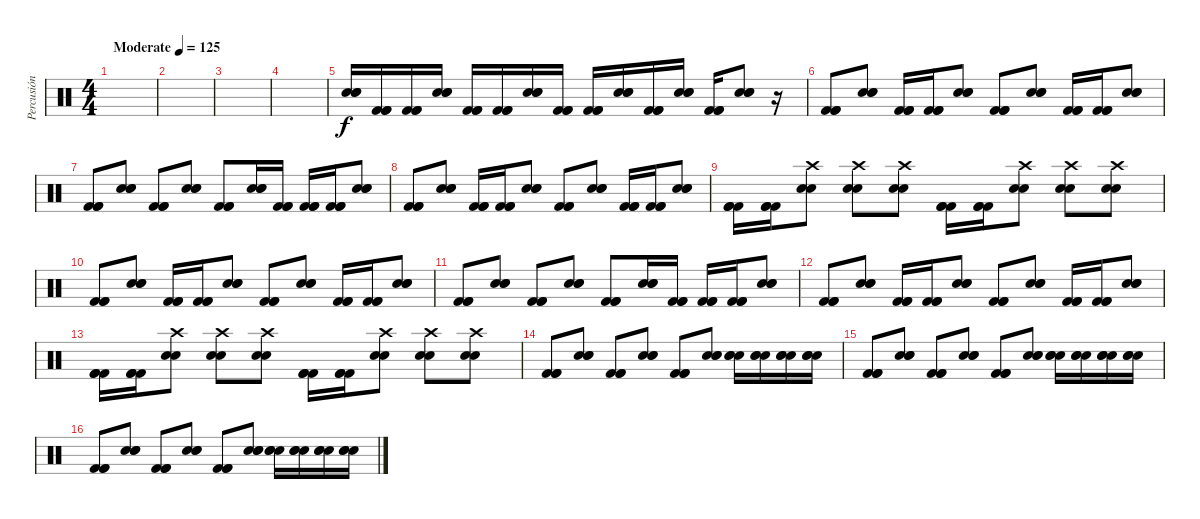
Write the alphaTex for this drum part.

\track ("Percusión" "Percusión") {instrument percussion}
\staff {score}
\articulation defaults
\ts (4 4)
\tempo (125 "Moderate")
\clef neutral
\ks c
|
|
|
|
("Electric Snare (hit)" "Electric Snare (hit)" "Electric Snare (hit)").16 ("Kick (hit) 2" "Kick (hit) 2" "Kick (hit) 2").16 ("Kick (hit) 2" "Kick (hit) 2" "Kick (hit) 2").16 ("Electric Snare (hit)" "Electric Snare (hit)" "Electric Snare (hit)").16 ("Kick (hit) 2" "Kick (hit) 2" "Kick (hit) 2").16 ("Kick (hit) 2" "Kick (hit) 2" "Kick (hit) 2").16 ("Electric Snare (hit)" "Electric Snare (hit)" "Electric Snare (hit)").16 ("Kick (hit) 2" "Kick (hit) 2" "Kick (hit) 2").16 ("Kick (hit) 2" "Kick (hit) 2" "Kick (hit) 2").16 ("Electric Snare (hit)" "Electric Snare (hit)" "Electric Snare (hit)").16 ("Kick (hit) 2" "Kick (hit) 2" "Kick (hit) 2").16 ("Electric Snare (hit)" "Electric Snare (hit)" "Electric Snare (hit)").16 ("Kick (hit) 2" "Kick (hit) 2" "Kick (hit) 2").16 ("Electric Snare (hit)" "Electric Snare (hit)" "Electric Snare (hit)").8 r.16 |
("Kick (hit) 2" "Kick (hit) 2" "Kick (hit) 2").8 ("Electric Snare (hit)" "Electric Snare (hit)" "Electric Snare (hit)").8 ("Kick (hit) 2" "Kick (hit) 2" "Kick (hit) 2").16 ("Kick (hit) 2" "Kick (hit) 2" "Kick (hit) 2").16 ("Electric Snare (hit)" "Electric Snare (hit)" "Electric Snare (hit)").8 ("Kick (hit) 2" "Kick (hit) 2" "Kick (hit) 2").8 ("Electric Snare (hit)" "Electric Snare (hit)" "Electric Snare (hit)").8 ("Kick (hit) 2" "Kick (hit) 2" "Kick (hit) 2").16 ("Kick (hit) 2" "Kick (hit) 2" "Kick (hit) 2").16 ("Electric Snare (hit)" "Electric Snare (hit)" "Electric Snare (hit)").8 |
("Kick (hit) 2" "Kick (hit) 2" "Kick (hit) 2").8 ("Electric Snare (hit)" "Electric Snare (hit)" "Electric Snare (hit)").8 ("Kick (hit) 2" "Kick (hit) 2" "Kick (hit) 2").8 ("Electric Snare (hit)" "Electric Snare (hit)" "Electric Snare (hit)").8 ("Kick (hit) 2" "Kick (hit) 2" "Kick (hit) 2").8 ("Electric Snare (hit)" "Electric Snare (hit)" "Electric Snare (hit)").16 ("Kick (hit) 2" "Kick (hit) 2" "Kick (hit) 2").16 ("Kick (hit) 2" "Kick (hit) 2" "Kick (hit) 2").16 ("Kick (hit) 2" "Kick (hit) 2" "Kick (hit) 2").16 ("Electric Snare (hit)" "Electric Snare (hit)" "Electric Snare (hit)").8 |
("Kick (hit) 2" "Kick (hit) 2" "Kick (hit) 2").8 ("Electric Snare (hit)" "Electric Snare (hit)" "Electric Snare (hit)").8 ("Kick (hit) 2" "Kick (hit) 2" "Kick (hit) 2").16 ("Kick (hit) 2" "Kick (hit) 2" "Kick (hit) 2").16 ("Electric Snare (hit)" "Electric Snare (hit)" "Electric Snare (hit)").8 ("Kick (hit) 2" "Kick (hit) 2" "Kick (hit) 2").8 ("Electric Snare (hit)" "Electric Snare (hit)" "Electric Snare (hit)").8 ("Kick (hit) 2" "Kick (hit) 2" "Kick (hit) 2").16 ("Kick (hit) 2" "Kick (hit) 2" "Kick (hit) 2").16 ("Electric Snare (hit)" "Electric Snare (hit)" "Electric Snare (hit)").8 |
("Kick (hit) 2" "Kick (hit) 2" "Kick (hit) 2").16 ("Kick (hit) 2" "Kick (hit) 2" "Kick (hit) 2").16 ("Crash high (hit)" "Electric Snare (hit)" "Electric Snare (hit)").8 ("Crash high (hit)" "Electric Snare (hit)" "Electric Snare (hit)").8 ("Crash high (hit)" "Electric Snare (hit)" "Electric Snare (hit)").8 ("Kick (hit) 2" "Kick (hit) 2" "Kick (hit) 2").16 ("Kick (hit) 2" "Kick (hit) 2" "Kick (hit) 2").16 ("Crash high (hit)" "Electric Snare (hit)" "Electric Snare (hit)").8 ("Crash high (hit)" "Electric Snare (hit)" "Electric Snare (hit)").8 ("Crash high (hit)" "Electric Snare (hit)" "Electric Snare (hit)").8 |
("Kick (hit) 2" "Kick (hit) 2" "Kick (hit) 2").8 ("Electric Snare (hit)" "Electric Snare (hit)" "Electric Snare (hit)").8 ("Kick (hit) 2" "Kick (hit) 2" "Kick (hit) 2").16 ("Kick (hit) 2" "Kick (hit) 2" "Kick (hit) 2").16 ("Electric Snare (hit)" "Electric Snare (hit)" "Electric Snare (hit)").8 ("Kick (hit) 2" "Kick (hit) 2" "Kick (hit) 2").8 ("Electric Snare (hit)" "Electric Snare (hit)" "Electric Snare (hit)").8 ("Kick (hit) 2" "Kick (hit) 2" "Kick (hit) 2").16 ("Kick (hit) 2" "Kick (hit) 2" "Kick (hit) 2").16 ("Electric Snare (hit)" "Electric Snare (hit)" "Electric Snare (hit)").8 |
("Kick (hit) 2" "Kick (hit) 2" "Kick (hit) 2").8 ("Electric Snare (hit)" "Electric Snare (hit)" "Electric Snare (hit)").8 ("Kick (hit) 2" "Kick (hit) 2" "Kick (hit) 2").8 ("Electric Snare (hit)" "Electric Snare (hit)" "Electric Snare (hit)").8 ("Kick (hit) 2" "Kick (hit) 2" "Kick (hit) 2").8 ("Electric Snare (hit)" "Electric Snare (hit)" "Electric Snare (hit)").16 ("Kick (hit) 2" "Kick (hit) 2" "Kick (hit) 2").16 ("Kick (hit) 2" "Kick (hit) 2" "Kick (hit) 2").16 ("Kick (hit) 2" "Kick (hit) 2" "Kick (hit) 2").16 ("Electric Snare (hit)" "Electric Snare (hit)" "Electric Snare (hit)").8 |
("Kick (hit) 2" "Kick (hit) 2" "Kick (hit) 2").8 ("Electric Snare (hit)" "Electric Snare (hit)" "Electric Snare (hit)").8 ("Kick (hit) 2" "Kick (hit) 2" "Kick (hit) 2").16 ("Kick (hit) 2" "Kick (hit) 2" "Kick (hit) 2").16 ("Electric Snare (hit)" "Electric Snare (hit)" "Electric Snare (hit)").8 ("Kick (hit) 2" "Kick (hit) 2" "Kick (hit) 2").8 ("Electric Snare (hit)" "Electric Snare (hit)" "Electric Snare (hit)").8 ("Kick (hit) 2" "Kick (hit) 2" "Kick (hit) 2").16 ("Kick (hit) 2" "Kick (hit) 2" "Kick (hit) 2").16 ("Electric Snare (hit)" "Electric Snare (hit)" "Electric Snare (hit)").8 |
("Kick (hit) 2" "Kick (hit) 2" "Kick (hit) 2").16 ("Kick (hit) 2" "Kick (hit) 2" "Kick (hit) 2").16 ("Crash high (hit)" "Electric Snare (hit)" "Electric Snare (hit)").8 ("Crash high (hit)" "Electric Snare (hit)" "Electric Snare (hit)").8 ("Crash high (hit)" "Electric Snare (hit)" "Electric Snare (hit)").8 ("Kick (hit) 2" "Kick (hit) 2" "Kick (hit) 2").16 ("Kick (hit) 2" "Kick (hit) 2" "Kick (hit) 2").16 ("Crash high (hit)" "Electric Snare (hit)" "Electric Snare (hit)").8 ("Crash high (hit)" "Electric Snare (hit)" "Electric Snare (hit)").8 ("Crash high (hit)" "Electric Snare (hit)" "Electric Snare (hit)").8 |
("Kick (hit) 2" "Kick (hit) 2" "Kick (hit) 2").8 ("Electric Snare (hit)" "Electric Snare (hit)" "Electric Snare (hit)").8 ("Kick (hit) 2" "Kick (hit) 2" "Kick (hit) 2").8 ("Electric Snare (hit)" "Electric Snare (hit)" "Electric Snare (hit)").8 ("Kick (hit) 2" "Kick (hit) 2" "Kick (hit) 2").8 ("Electric Snare (hit)" "Electric Snare (hit)" "Electric Snare (hit)").8 ("Electric Snare (hit)" "Electric Snare (hit)" "Electric Snare (hit)").16 ("Electric Snare (hit)" "Electric Snare (hit)" "Electric Snare (hit)").16 ("Electric Snare (hit)" "Electric Snare (hit)" "Electric Snare (hit)").16 ("Electric Snare (hit)" "Electric Snare (hit)" "Electric Snare (hit)").16 |
("Kick (hit) 2" "Kick (hit) 2" "Kick (hit) 2").8 ("Electric Snare (hit)" "Electric Snare (hit)" "Electric Snare (hit)").8 ("Kick (hit) 2" "Kick (hit) 2" "Kick (hit) 2").8 ("Electric Snare (hit)" "Electric Snare (hit)" "Electric Snare (hit)").8 ("Kick (hit) 2" "Kick (hit) 2" "Kick (hit) 2").8 ("Electric Snare (hit)" "Electric Snare (hit)" "Electric Snare (hit)").8 ("Electric Snare (hit)" "Electric Snare (hit)" "Electric Snare (hit)").16 ("Electric Snare (hit)" "Electric Snare (hit)" "Electric Snare (hit)").16 ("Electric Snare (hit)" "Electric Snare (hit)" "Electric Snare (hit)").16 ("Electric Snare (hit)" "Electric Snare (hit)" "Electric Snare (hit)").16 |
("Kick (hit) 2" "Kick (hit) 2" "Kick (hit) 2").8 ("Electric Snare (hit)" "Electric Snare (hit)" "Electric Snare (hit)").8 ("Kick (hit) 2" "Kick (hit) 2" "Kick (hit) 2").8 ("Electric Snare (hit)" "Electric Snare (hit)" "Electric Snare (hit)").8 ("Kick (hit) 2" "Kick (hit) 2" "Kick (hit) 2").8 ("Electric Snare (hit)" "Electric Snare (hit)" "Electric Snare (hit)").8 ("Electric Snare (hit)" "Electric Snare (hit)" "Electric Snare (hit)").16 ("Electric Snare (hit)" "Electric Snare (hit)" "Electric Snare (hit)").16 ("Electric Snare (hit)" "Electric Snare (hit)" "Electric Snare (hit)").16 ("Electric Snare (hit)" "Electric Snare (hit)" "Electric Snare (hit)").16
